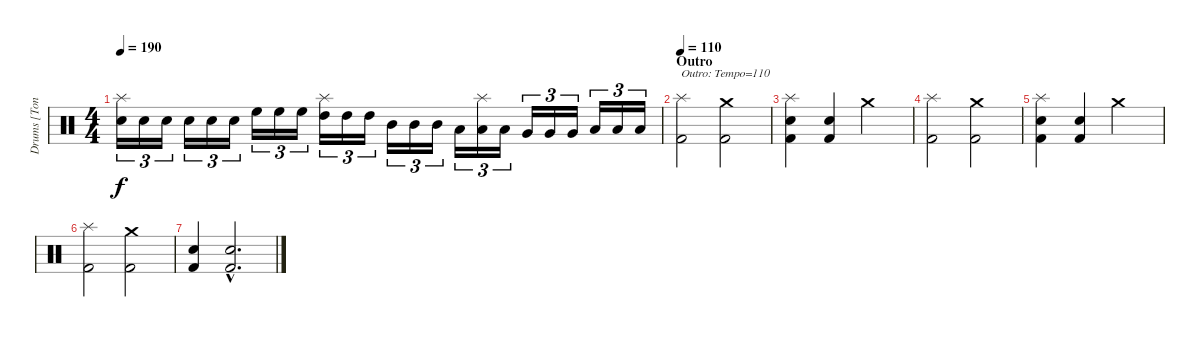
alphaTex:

\track ("Drums [Tony Laureano]" "Drums [Ton") {instrument percussion}
\staff {score}
\articulation defaults
\ts (4 4)
\tempo 190
\clef neutral
\ks c
("Splash (hit)" "Electric Snare (hit)").16{tu (3 2) dy f} "Electric Snare (hit)".16{tu (3 2)} "Electric Snare (hit)".16{tu (3 2)} "Electric Snare (hit)".16{tu (3 2)} "Electric Snare (hit)".16{tu (3 2)} "Electric Snare (hit)".16{tu (3 2)} "High Floor Tom (hit)".16{tu (3 2)} "High Floor Tom (hit)".16{tu (3 2)} "High Floor Tom (hit)".16{tu (3 2)} ("Splash (hit)" "High Tom (hit)").16{tu (3 2)} "High Tom (hit)".16{tu (3 2)} "High Tom (hit)".16{tu (3 2)} "Mid Tom (hit)".16{tu (3 2)} "Mid Tom (hit)".16{tu (3 2)} "Mid Tom (hit)".16{tu (3 2)} "Low Tom (hit)".16{tu (3 2)} ("Splash (hit)" "Low Tom (hit)").16{tu (3 2)} "Low Tom (hit)".16{tu (3 2)} "Very Low Tom (hit)".16{tu (3 2)} "Very Low Tom (hit)".16{tu (3 2)} "Very Low Tom (hit)".16{tu (3 2)} "Low Floor Tom (hit)".16{tu (3 2)} "Low Floor Tom (hit)".16{tu (3 2)} "Low Floor Tom (hit)".16{tu (3 2)} |
\section ("" "Outro")
\tempo 110
("Splash (hit)" "Kick (hit) 2").2{txt "Outro: Tempo=110"} ("Crash medium (hit)" "Kick (hit) 2").2 |
("Splash (hit)" "Electric Snare (hit)" "Kick (hit) 2").4 ("Electric Snare (hit)" "Kick (hit) 2").4 "Crash medium (hit)".2 |
("Splash (hit)" "Kick (hit) 2").2 ("Crash medium (hit)" "Kick (hit) 2").2 |
("Splash (hit)" "Electric Snare (hit)" "Kick (hit) 2").4 ("Electric Snare (hit)" "Kick (hit) 2").4 "Crash medium (hit)".2 |
("Splash (hit)" "Kick (hit) 2").2 ("Crash medium (hit)" "Kick (hit) 2").2 |
("Electric Snare (hit)" "Kick (hit) 2").4 ("Electric Snare (hit)"{hac} "Kick (hit) 2"{hac}).2{d}
